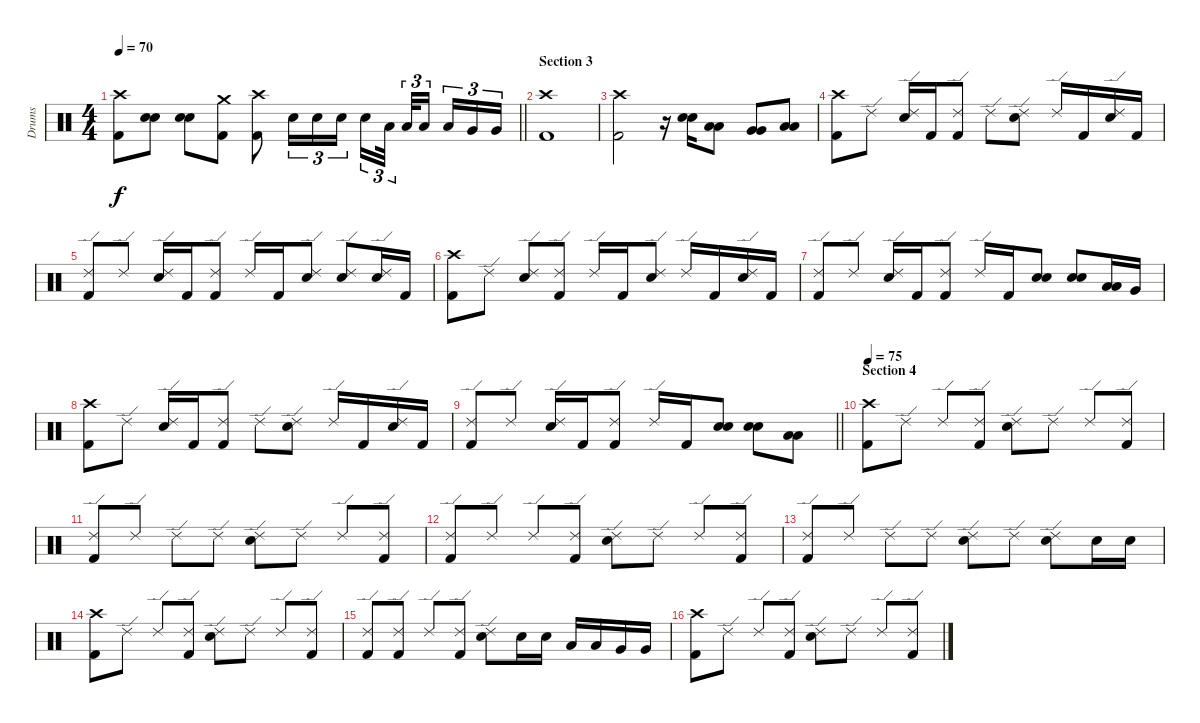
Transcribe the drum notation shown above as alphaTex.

\track ("Drums" "Drums") {instrument percussion}
\staff {score}
\articulation defaults
\ts (4 4)
\tempo 70
\clef neutral
\barLineRight lightlight
\ks c
("Crash high (hit)" "Kick (hit) 2").8{dy f} ("Electric Snare (hit)" "Electric Snare (hit)").8{bu 60} ("Electric Snare (hit)" "Electric Snare (hit)").8{bu 60} ("Crash medium (hit)" "Kick (hit) 2").8 ("Crash high (hit)" "Kick (hit) 2").8 "Electric Snare (hit)".16{tu (3 2)} "Electric Snare (hit)".16{tu (3 2)} "Electric Snare (hit)".16{tu (3 2)} "Electric Snare (hit)".16{tu (3 2)} "Low Tom (hit)".32{tu (3 2)} "Low Tom (hit)".32{tu (3 2)} "Low Tom (hit)".16{tu (3 2)} "Low Tom (hit)".16{tu (3 2)} "Very Low Tom (hit)".16{tu (3 2)} "Very Low Tom (hit)".16{tu (3 2)} |
\section ("" "Section 3")
("Crash high (hit)" "Kick (hit) 2").1 |
("Crash high (hit)" "Kick (hit) 2").2 r.16 ("Electric Snare (hit)" "Electric Snare (hit)").16{bu 60} ("Low Tom (hit)" "Low Tom (hit)").8{bu 60} ("Very Low Tom (hit)" "Very Low Tom (hit)").8{bu 60} ("Low Floor Tom (hit)" "Low Floor Tom (hit)").8{bu 60} |
("Crash high (hit)" "Kick (hit) 2").8 "Ride (edge) 2".8 ("Ride (edge) 2" "Electric Snare (hit)").16 "Kick (hit) 2".16 ("Ride (edge) 2" "Kick (hit) 2").8 "Ride (edge) 2".8 ("Ride (edge) 2" "Electric Snare (hit)").8 "Ride (edge) 2".16 "Kick (hit) 2".16 ("Ride (edge) 2" "Electric Snare (hit)").16 "Kick (hit) 2".16 |
("Ride (edge) 2" "Kick (hit) 2").8 "Ride (edge) 2".8 ("Ride (edge) 2" "Electric Snare (hit)").16 "Kick (hit) 2".16 ("Ride (edge) 2" "Kick (hit) 2").8 "Ride (edge) 2".16 "Kick (hit) 2".16 ("Ride (edge) 2" "Electric Snare (hit)").8 ("Ride (edge) 2" "Electric Snare (hit)").8 ("Ride (edge) 2" "Electric Snare (hit)").16 "Kick (hit) 2".16 |
("Crash high (hit)" "Kick (hit) 2").8 "Ride (edge) 2".8 ("Ride (edge) 2" "Electric Snare (hit)").8 ("Ride (edge) 2" "Kick (hit) 2").8 "Ride (edge) 2".16 "Kick (hit) 2".16 ("Ride (edge) 2" "Electric Snare (hit)").8 "Ride (edge) 2".16 "Kick (hit) 2".16 ("Ride (edge) 2" "Electric Snare (hit)").16 "Kick (hit) 2".16 |
("Ride (edge) 2" "Kick (hit) 2").8 "Ride (edge) 2".8 ("Ride (edge) 2" "Electric Snare (hit)").16 "Kick (hit) 2".16 ("Ride (edge) 2" "Kick (hit) 2").8 "Ride (edge) 2".16 "Kick (hit) 2".16 ("Electric Snare (hit)" "Electric Snare (hit)").8{bu 60} ("Electric Snare (hit)" "Electric Snare (hit)").8{bu 60} ("Low Tom (hit)" "Low Tom (hit)").16{bu 60} "Very Low Tom (hit)".16 |
("Crash high (hit)" "Kick (hit) 2").8 "Ride (edge) 2".8 ("Ride (edge) 2" "Electric Snare (hit)").16 "Kick (hit) 2".16 ("Ride (edge) 2" "Kick (hit) 2").8 "Ride (edge) 2".8 ("Ride (edge) 2" "Electric Snare (hit)").8 "Ride (edge) 2".16 "Kick (hit) 2".16 ("Ride (edge) 2" "Electric Snare (hit)").16 "Kick (hit) 2".16 |
\barLineRight lightlight
("Ride (edge) 2" "Kick (hit) 2").8 "Ride (edge) 2".8 ("Ride (edge) 2" "Electric Snare (hit)").16 "Kick (hit) 2".16 ("Ride (edge) 2" "Kick (hit) 2").8 "Ride (edge) 2".16 "Kick (hit) 2".16 ("Electric Snare (hit)" "Electric Snare (hit)").8{bu 60} ("Electric Snare (hit)" "Electric Snare (hit)").8{bu 60} ("Low Tom (hit)" "Low Tom (hit)").8{bu 60} |
\section ("" "Section 4")
\tempo 75
("Crash high (hit)" "Kick (hit) 2").8 "Ride (edge) 2".8 "Ride (edge) 2".8 ("Ride (edge) 2" "Kick (hit) 2").8 ("Ride (edge) 2" "Electric Snare (hit)").8 "Ride (edge) 2".8 "Ride (edge) 2".8 ("Ride (edge) 2" "Kick (hit) 2").8 |
("Ride (edge) 2" "Kick (hit) 2").8 "Ride (edge) 2".8 "Ride (edge) 2".8 "Ride (edge) 2".8 ("Ride (edge) 2" "Electric Snare (hit)").8 "Ride (edge) 2".8 "Ride (edge) 2".8 ("Ride (edge) 2" "Kick (hit) 2").8 |
("Ride (edge) 2" "Kick (hit) 2").8 "Ride (edge) 2".8 "Ride (edge) 2".8 ("Ride (edge) 2" "Kick (hit) 2").8 ("Ride (edge) 2" "Electric Snare (hit)").8 "Ride (edge) 2".8 "Ride (edge) 2".8 ("Ride (edge) 2" "Kick (hit) 2").8 |
("Ride (edge) 2" "Kick (hit) 2").8 "Ride (edge) 2".8 "Ride (edge) 2".8 "Ride (edge) 2".8 ("Ride (edge) 2" "Electric Snare (hit)").8 "Ride (edge) 2".8 ("Ride (edge) 2" "Electric Snare (hit)").8 "Electric Snare (hit)".16 "Electric Snare (hit)".16 |
("Crash high (hit)" "Kick (hit) 2").8 "Ride (edge) 2".8 "Ride (edge) 2".8 ("Ride (edge) 2" "Kick (hit) 2").8 ("Ride (edge) 2" "Electric Snare (hit)").8 "Ride (edge) 2".8 "Ride (edge) 2".8 ("Ride (edge) 2" "Kick (hit) 2").8 |
("Ride (edge) 2" "Kick (hit) 2").8 ("Ride (edge) 2" "Kick (hit) 2").8 "Ride (edge) 2".8 ("Ride (edge) 2" "Kick (hit) 2").8 ("Ride (edge) 2" "Electric Snare (hit)").8 "Electric Snare (hit)".16 "Electric Snare (hit)".16 "Low Tom (hit)".16 "Low Tom (hit)".16 "Very Low Tom (hit)".16 "Very Low Tom (hit)".16 |
("Crash high (hit)" "Kick (hit) 2").8 "Ride (edge) 2".8 "Ride (edge) 2".8 ("Ride (edge) 2" "Kick (hit) 2").8 ("Ride (edge) 2" "Electric Snare (hit)").8 "Ride (edge) 2".8 "Ride (edge) 2".8 ("Ride (edge) 2" "Kick (hit) 2").8
